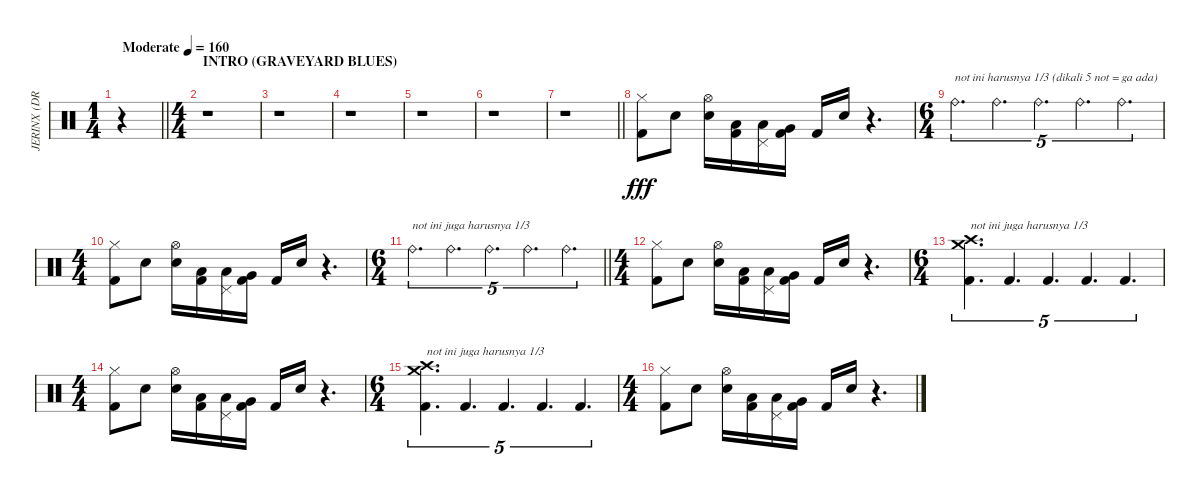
\track ("JERINX (DRUM)" "JERINX (DR") {instrument percussion}
\staff {score}
\articulation defaults
\ts (1 4)
\tempo (160 "Moderate")
\clef neutral
\barLineRight lightlight
\ks c
r.4{dy fff} |
\ts (4 4)
\section ("" "INTRO (GRAVEYARD BLUES)")
r.1 |
r.1 |
r.1 |
r.1 |
r.1 |
\barLineRight lightlight
r.1 |
("Hi-Hat (closed)" "Kick (hit) 2").8 "Snare (hit) 2".8 ("Hi-Hat (open)" "Snare (hit) 2").16 ("Kick (hit) 2" "Low Tom (hit)").16 ("Pedal Hi-Hat (hit)" "Low Tom (hit)").16 ("Kick (hit) 2" "Very Low Tom (hit)").16 "Kick (hit) 2".16 "Snare (hit) 2".16 r.4{d} |
\ts (6 4)
"Ride (bell)".4{d tu (5 4) txt "not ini harusnya 1/3 (dikali 5 not = ga ada)"} "Ride (bell)".4{d tu (5 4)} "Ride (bell)".4{d tu (5 4)} "Ride (bell)".4{d tu (5 4)} "Ride (bell)".4{d tu (5 4)} |
\ts (4 4)
("Hi-Hat (closed)" "Kick (hit) 2").8 "Snare (hit) 2".8 ("Hi-Hat (open)" "Snare (hit) 2").16 ("Kick (hit) 2" "Low Tom (hit)").16 ("Pedal Hi-Hat (hit)" "Low Tom (hit)").16 ("Kick (hit) 2" "Very Low Tom (hit)").16 "Kick (hit) 2".16 "Snare (hit) 2".16 r.4{d} |
\ts (6 4)
\barLineRight lightlight "Ride (bell)".4{d tu (5 4) txt "not ini juga harusnya 1/3"} "Ride (bell)".4{d tu (5 4)} "Ride (bell)".4{d tu (5 4)} "Ride (bell)".4{d tu (5 4)} "Ride (bell)".4{d tu (5 4)}
|
\ts (4 4)
("Hi-Hat (closed)" "Kick (hit) 2").8 "Snare (hit) 2".8 ("Hi-Hat (open)" "Snare (hit) 2").16 ("Kick (hit) 2" "Low Tom (hit)").16 ("Pedal Hi-Hat (hit)" "Low Tom (hit)").16 ("Kick (hit) 2" "Very Low Tom (hit)").16 "Kick (hit) 2".16 "Snare (hit) 2".16 r.4{d} |
\ts (6 4)
("Kick (hit) 2" "Crash high (hit)" "Crash medium (hit)").4{d tu (5 4) txt "not ini juga harusnya 1/3"} "Kick (hit) 2".4{d tu (5 4)} "Kick (hit) 2".4{d tu (5 4)} "Kick (hit) 2".4{d tu (5 4)} "Kick (hit) 2".4{d tu (5 4)} |
\ts (4 4)
("Hi-Hat (closed)" "Kick (hit) 2").8 "Snare (hit) 2".8 ("Hi-Hat (open)" "Snare (hit) 2").16 ("Kick (hit) 2" "Low Tom (hit)").16 ("Pedal Hi-Hat (hit)" "Low Tom (hit)").16 ("Kick (hit) 2" "Very Low Tom (hit)").16 "Kick (hit) 2".16 "Snare (hit) 2".16 r.4{d} |
\ts (6 4)
("Kick (hit) 2" "Crash high (hit)" "Crash medium (hit)").4{d tu (5 4) txt "not ini juga harusnya 1/3"} "Kick (hit) 2".4{d tu (5 4)} "Kick (hit) 2".4{d tu (5 4)} "Kick (hit) 2".4{d tu (5 4)} "Kick (hit) 2".4{d tu (5 4)} |
\ts (4 4)
("Hi-Hat (closed)" "Kick (hit) 2").8 "Snare (hit) 2".8 ("Hi-Hat (open)" "Snare (hit) 2").16 ("Kick (hit) 2" "Low Tom (hit)").16 ("Pedal Hi-Hat (hit)" "Low Tom (hit)").16 ("Kick (hit) 2" "Very Low Tom (hit)").16 "Kick (hit) 2".16 "Snare (hit) 2".16 r.4{d}
